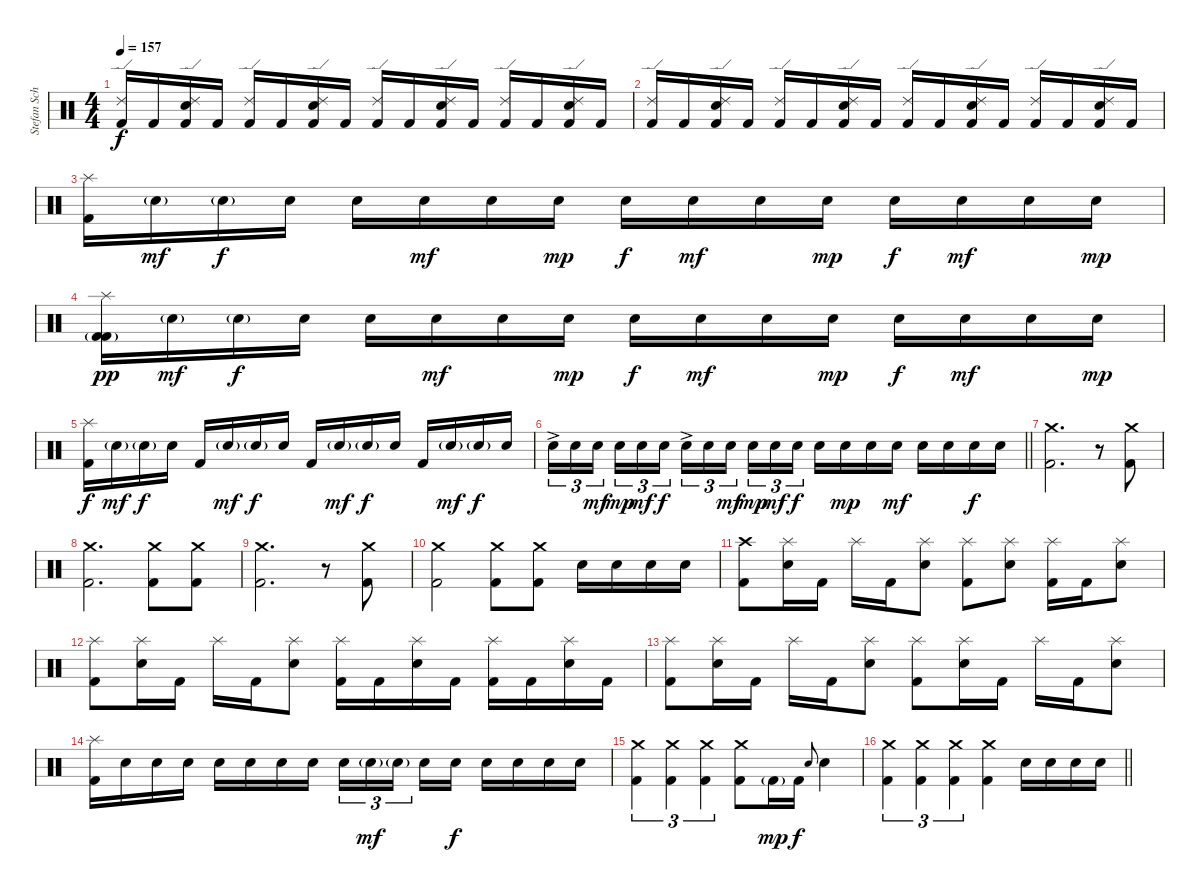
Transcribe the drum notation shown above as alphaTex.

\track ("Stefan Schwarzmann" "Stefan Sch") {instrument percussion}
\staff {score}
\articulation defaults
\ts (4 4)
\tempo 157
\clef neutral
\ks c
("Ride (edge) 2" "Kick (hit) 2").16{dy f} "Kick (hit) 2".16 ("Ride (edge) 2" "Snare (hit) 2" "Kick (hit) 2").16 "Kick (hit) 2".16 ("Ride (edge) 2" "Kick (hit) 2").16 "Kick (hit) 2".16 ("Ride (edge) 2" "Snare (hit) 2" "Kick (hit) 2").16 "Kick (hit) 2".16 ("Ride (edge) 2" "Kick (hit) 2").16 "Kick (hit) 2".16 ("Ride (edge) 2" "Snare (hit) 2" "Kick (hit) 2").16 "Kick (hit) 2".16 ("Ride (edge) 2" "Kick (hit) 2").16 "Kick (hit) 2".16 ("Ride (edge) 2" "Snare (hit) 2" "Kick (hit) 2").16 "Kick (hit) 2".16 |
("Ride (edge) 2" "Kick (hit) 2").16 "Kick (hit) 2".16 ("Ride (edge) 2" "Snare (hit) 2" "Kick (hit) 2").16 "Kick (hit) 2".16 ("Ride (edge) 2" "Kick (hit) 2").16 "Kick (hit) 2".16 ("Ride (edge) 2" "Snare (hit) 2" "Kick (hit) 2").16 "Kick (hit) 2".16 ("Ride (edge) 2" "Kick (hit) 2").16 "Kick (hit) 2".16 ("Ride (edge) 2" "Snare (hit) 2" "Kick (hit) 2").16 "Kick (hit) 2".16 ("Ride (edge) 2" "Kick (hit) 2").16 "Kick (hit) 2".16 ("Ride (edge) 2" "Snare (hit) 2" "Kick (hit) 2").16 "Kick (hit) 2".16 |
("Splash (hit)" "Kick (hit) 2").16 "Snare (hit) 2"{g}.16{dy mf} "Snare (hit) 2"{g}.16{dy f} "Snare (hit) 2".16 "Snare (hit) 2".16 "Snare (hit) 2".16{dy mf} "Snare (hit) 2".16 "Snare (hit) 2".16{dy mp} "Snare (hit) 2".16{dy f} "Snare (hit) 2".16{dy mf} "Snare (hit) 2".16 "Snare (hit) 2".16{dy mp} "Snare (hit) 2".16{dy f} "Snare (hit) 2".16{dy mf} "Snare (hit) 2".16 "Snare (hit) 2".16{dy mp} |
("Splash (hit)" "Kick (hit) 2"{g} "Kick (hit) 2").16{dy pp} "Snare (hit) 2"{g}.16{dy mf} "Snare (hit) 2"{g}.16{dy f} "Snare (hit) 2".16 "Snare (hit) 2".16 "Snare (hit) 2".16{dy mf} "Snare (hit) 2".16 "Snare (hit) 2".16{dy mp} "Snare (hit) 2".16{dy f} "Snare (hit) 2".16{dy mf} "Snare (hit) 2".16 "Snare (hit) 2".16{dy mp} "Snare (hit) 2".16{dy f} "Snare (hit) 2".16{dy mf} "Snare (hit) 2".16 "Snare (hit) 2".16{dy mp} |
("Splash (hit)" "Kick (hit) 2").16{dy f} "Snare (hit) 2"{g}.16{dy mf} "Snare (hit) 2"{g}.16{dy f} "Snare (hit) 2".16 "Kick (hit) 2".16 "Snare (hit) 2"{g}.16{dy mf} "Snare (hit) 2"{g}.16{dy f} "Snare (hit) 2".16 "Kick (hit) 2".16 "Snare (hit) 2"{g}.16{dy mf} "Snare (hit) 2"{g}.16{dy f} "Snare (hit) 2".16 "Kick (hit) 2".16 "Snare (hit) 2"{g}.16{dy mf} "Snare (hit) 2"{g}.16{dy f} "Snare (hit) 2".16 |
\barLineRight lightlight "Snare (hit) 2"{ac}.16{tu (3 2)} "Snare (hit) 2".16{tu (3 2)} "Snare (hit) 2".16{tu (3 2) dy mf beam splitsecondary} "Snare (hit) 2".16{tu (3 2) dy mp} "Snare (hit) 2".16{tu (3 2) dy mf} "Snare (hit) 2".16{tu (3 2) dy f} "Snare (hit) 2"{ac}.16{tu (3 2)} "Snare (hit) 2".16{tu (3 2)} "Snare (hit) 2".16{tu (3 2) dy mf beam splitsecondary} "Snare (hit) 2".16{tu (3 2) dy mp} "Snare (hit) 2".16{tu (3 2) dy mf} "Snare (hit) 2".16{tu (3 2) dy f} "Snare (hit) 2".16 "Snare (hit) 2".16{dy mp} "Snare (hit) 2".16 "Snare (hit) 2".16{dy mf} "Snare (hit) 2".16 "Snare (hit) 2".16 "Snare (hit) 2".16{dy f} "Snare (hit) 2".16
|
\section ("" "")
("Crash medium (hit)" "Kick (hit) 2").2{d} r.8 ("Crash medium (hit)" "Kick (hit) 2").8 |
("Crash medium (hit)" "Kick (hit) 2").2{d} ("Crash medium (hit)" "Kick (hit) 2").8 ("Crash medium (hit)" "Kick (hit) 2").8 |
("Crash medium (hit)" "Kick (hit) 2").2{d} r.8 ("Crash medium (hit)" "Kick (hit) 2").8 |
("Crash medium (hit)" "Kick (hit) 2").2 ("Crash medium (hit)" "Kick (hit) 2").8 ("Crash medium (hit)" "Kick (hit) 2").8 "Snare (hit) 2".16 "Snare (hit) 2".16 "Snare (hit) 2".16 "Snare (hit) 2".16 |
("Crash high (hit)" "Kick (hit) 2").8 ("Splash (hit)" "Snare (hit) 2").16 "Kick (hit) 2".16 "Splash (hit)".16 "Kick (hit) 2".16 ("Splash (hit)" "Snare (hit) 2").8 ("Splash (hit)" "Kick (hit) 2").8 ("Splash (hit)" "Snare (hit) 2").8 ("Splash (hit)" "Kick (hit) 2").16 "Kick (hit) 2".16 ("Splash (hit)" "Snare (hit) 2").8 |
("Splash (hit)" "Kick (hit) 2").8 ("Splash (hit)" "Snare (hit) 2").16 "Kick (hit) 2".16 "Splash (hit)".16 "Kick (hit) 2".16 ("Splash (hit)" "Snare (hit) 2").8 ("Splash (hit)" "Kick (hit) 2").16 "Kick (hit) 2".16 ("Splash (hit)" "Snare (hit) 2").16 "Kick (hit) 2".16 ("Splash (hit)" "Kick (hit) 2").16 "Kick (hit) 2".16 ("Splash (hit)" "Snare (hit) 2").16 "Kick (hit) 2".16 |
("Splash (hit)" "Kick (hit) 2").8 ("Splash (hit)" "Snare (hit) 2").16 "Kick (hit) 2".16 "Splash (hit)".16 "Kick (hit) 2".16 ("Splash (hit)" "Snare (hit) 2").8 ("Splash (hit)" "Kick (hit) 2").8 ("Splash (hit)" "Snare (hit) 2").16 "Kick (hit) 2".16 "Splash (hit)".16 "Kick (hit) 2".16 ("Splash (hit)" "Snare (hit) 2").8 |
("Splash (hit)" "Kick (hit) 2").16 "Snare (hit) 2".16 "Snare (hit) 2".16 "Snare (hit) 2".16 "Snare (hit) 2".16 "Snare (hit) 2".16 "Snare (hit) 2".16 "Snare (hit) 2".16 "Snare (hit) 2".16{tu (3 2)} "Snare (hit) 2"{g}.16{tu (3 2) dy mf} "Snare (hit) 2"{g}.16{tu (3 2) beam splitsecondary} "Snare (hit) 2".16 "Snare (hit) 2".16{dy f} "Snare (hit) 2".16 "Snare (hit) 2".16 "Snare (hit) 2".16 "Snare (hit) 2".16 |
("Crash medium (hit)" "Kick (hit) 2").4{tu (3 2)} ("Crash medium (hit)" "Kick (hit) 2").4{tu (3 2)} ("Crash medium (hit)" "Kick (hit) 2").4{tu (3 2)} ("Crash medium (hit)" "Kick (hit) 2").8 "Kick (hit) 2"{g}.16{dy mp} "Kick (hit) 2".16{dy f} "Snare (hit) 2".8{gr onbeat} "Snare (hit) 2".4 |
\barLineRight lightlight
("Crash medium (hit)" "Kick (hit) 2").4{tu (3 2)} ("Crash medium (hit)" "Kick (hit) 2").4{tu (3 2)} ("Crash medium (hit)" "Kick (hit) 2").4{tu (3 2)} ("Crash medium (hit)" "Kick (hit) 2").4 "Snare (hit) 2".16 "Snare (hit) 2".16 "Snare (hit) 2".16 "Snare (hit) 2".16
